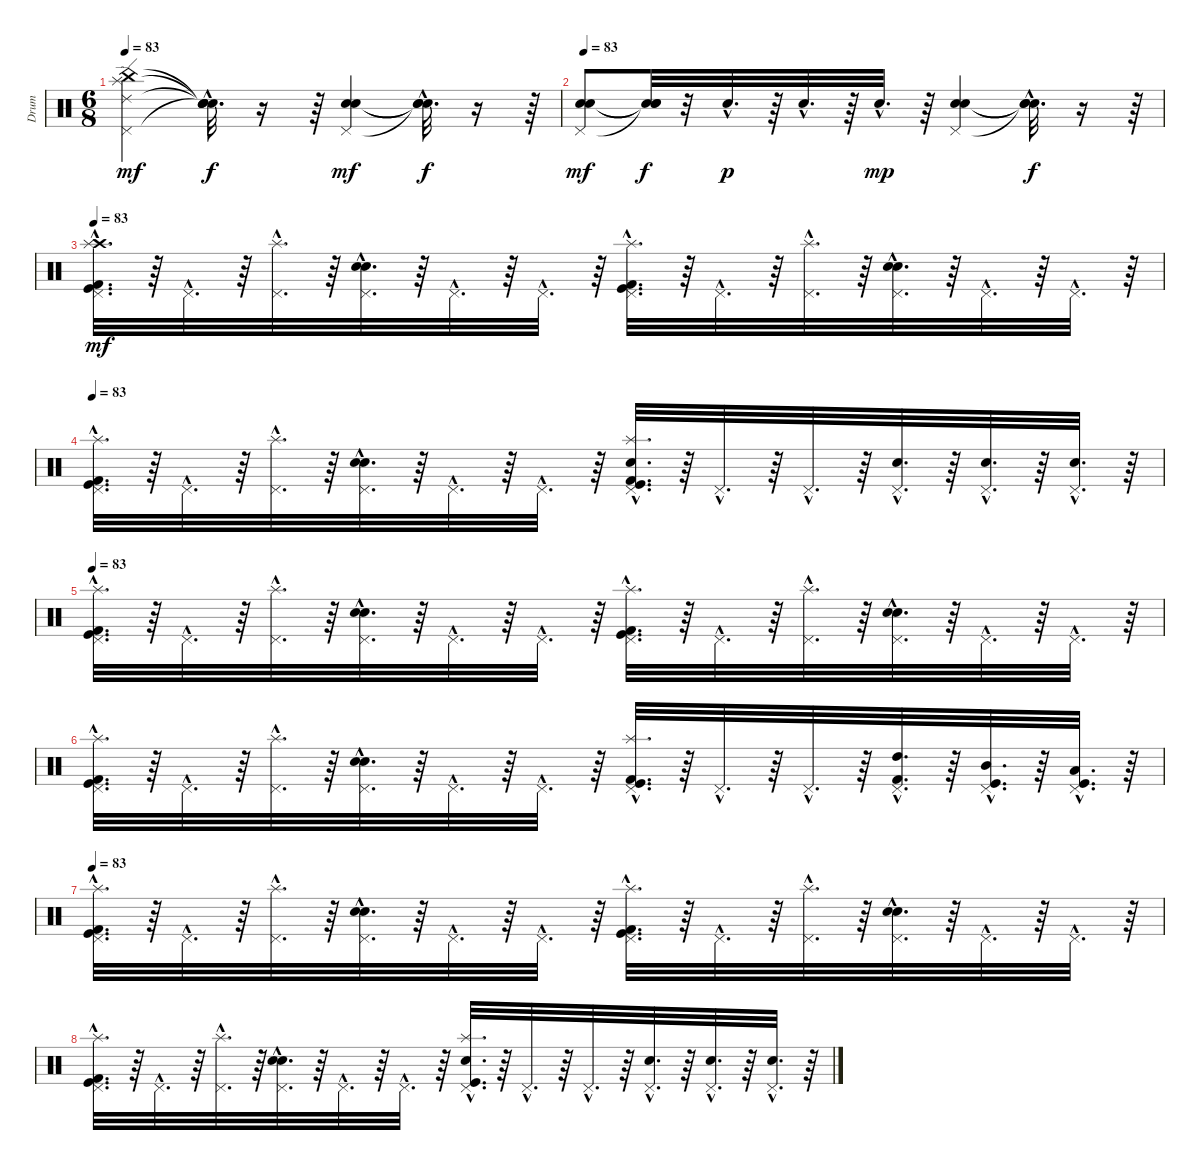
\track ("Drum" "Drum") {instrument percussion}
\staff {score}
\articulation defaults
\ts (6 8)
\tempo 83
\clef neutral
\ks c
("Pedal Hi-Hat (hit)" "Ride (edge) 2" "Splash (hit)" "China (hit)").4{dy mf} ("Snare (hit)"{hac t} "Snare (hit)"{hac t} "Snare (hit)"{hac t} "Snare (hit)"{hac t}).32{d dy f} r.16 r.64 ("Pedal Hi-Hat (hit)" "Electric Snare (hit)" "Snare (hit) 2").4{dy mf} ("Snare (hit)"{hac t} "Snare (hit)"{hac t} "Snare (hit)"{hac t}).32{d dy f} r.16 r.64 |
\tempo 83
("Pedal Hi-Hat (hit)" "Electric Snare (hit)" "Snare (hit) 2").8{dy mf} ("Snare (hit)"{t} "Snare (hit)"{t} "Snare (hit)"{t}).32{dy f} r.32 "Snare (hit) 2"{hac}.32{d dy p} r.64 "Snare (hit) 2"{hac}.32{d} r.64 "Snare (hit) 2"{hac}.32{d dy mp} r.64 ("Pedal Hi-Hat (hit)" "Electric Snare (hit)" "Snare (hit) 2").4 ("Snare (hit)"{hac t} "Snare (hit)"{hac t} "Snare (hit)"{hac t}).32{d dy f} r.16 r.64 |
\tempo 83
("Pedal Hi-Hat (hit)"{hac} "Kick (hit) 2"{hac} "Crash high (hit)"{hac} "Kick (hit)"{hac} "Splash (hit)"{hac}).32{d dy mf} r.64 "Pedal Hi-Hat (hit)"{hac}.32{d} r.64 ("Pedal Hi-Hat (hit)"{hac} "Splash (hit)"{hac}).32{d} r.64 ("Pedal Hi-Hat (hit)"{hac} "Snare (hit) 2"{hac} "Electric Snare (hit)"{hac}).32{d} r.64 "Pedal Hi-Hat (hit)"{hac}.32{d} r.64 "Pedal Hi-Hat (hit)"{hac}.32{d} r.64 ("Kick (hit) 2"{hac} "Kick (hit)"{hac} "Splash (hit)"{hac} "Pedal Hi-Hat (hit)"{hac}).32{d} r.64 "Pedal Hi-Hat (hit)"{hac}.32{d} r.64 ("Splash (hit)"{hac} "Pedal Hi-Hat (hit)"{hac}).32{d} r.64 ("Pedal Hi-Hat (hit)"{hac} "Snare (hit) 2"{hac} "Electric Snare (hit)"{hac}).32{d} r.64 "Pedal Hi-Hat (hit)"{hac}.32{d} r.64 "Pedal Hi-Hat (hit)"{hac}.32{d} r.64 |
\tempo 83
("Kick (hit) 2"{hac} "Pedal Hi-Hat (hit)"{hac} "Kick (hit)"{hac} "Splash (hit)"{hac}).32{d} r.64 "Pedal Hi-Hat (hit)"{hac}.32{d} r.64 ("Pedal Hi-Hat (hit)"{hac} "Splash (hit)"{hac}).32{d} r.64 ("Snare (hit) 2"{hac} "Electric Snare (hit)"{hac} "Pedal Hi-Hat (hit)"{hac}).32{d} r.64 "Pedal Hi-Hat (hit)"{hac}.32{d} r.64 "Pedal Hi-Hat (hit)"{hac}.32{d} r.64 ("Kick (hit) 2"{hac} "Pedal Hi-Hat (hit)"{hac} "Splash (hit)"{hac} "Kick (hit)"{hac} "Electric Snare (hit)"{hac}).32{d} r.64 "Pedal Hi-Hat (hit)"{hac}.32{d} r.64 "Pedal Hi-Hat (hit)"{hac}.32{d} r.64 ("Snare (hit) 2"{hac} "Pedal Hi-Hat (hit)"{hac}).32{d} r.64 ("Pedal Hi-Hat (hit)"{hac} "Snare (hit) 2"{hac}).32{d} r.64 ("Snare (hit) 2"{hac} "Pedal Hi-Hat (hit)"{hac}).32{d} r.64 |
\tempo 83
("Kick (hit) 2"{hac} "Splash (hit)"{hac} "Pedal Hi-Hat (hit)"{hac} "Kick (hit)"{hac}).32{d} r.64 "Pedal Hi-Hat (hit)"{hac}.32{d} r.64 ("Splash (hit)"{hac} "Pedal Hi-Hat (hit)"{hac}).32{d} r.64 ("Snare (hit) 2"{hac} "Electric Snare (hit)"{hac} "Pedal Hi-Hat (hit)"{hac}).32{d} r.64 "Pedal Hi-Hat (hit)"{hac}.32{d} r.64 "Pedal Hi-Hat (hit)"{hac}.32{d} r.64 ("Kick (hit) 2"{hac} "Kick (hit)"{hac} "Pedal Hi-Hat (hit)"{hac} "Splash (hit)"{hac}).32{d} r.64 "Pedal Hi-Hat (hit)"{hac}.32{d} r.64 ("Pedal Hi-Hat (hit)"{hac} "Splash (hit)"{hac}).32{d} r.64 ("Electric Snare (hit)"{hac} "Snare (hit) 2"{hac} "Pedal Hi-Hat (hit)"{hac}).32{d} r.64 "Pedal Hi-Hat (hit)"{hac}.32{d} r.64 "Pedal Hi-Hat (hit)"{hac}.32{d} r.64 |
("Pedal Hi-Hat (hit)"{hac} "Kick (hit)"{hac} "Splash (hit)"{hac} "Kick (hit) 2"{hac}).32{d} r.64 "Pedal Hi-Hat (hit)"{hac}.32{d} r.64 ("Pedal Hi-Hat (hit)"{hac} "Splash (hit)"{hac}).32{d} r.64 ("Pedal Hi-Hat (hit)"{hac} "Electric Snare (hit)"{hac} "Snare (hit) 2"{hac}).32{d} r.64 "Pedal Hi-Hat (hit)"{hac}.32{d} r.64 "Pedal Hi-Hat (hit)"{hac}.32{d} r.64 ("Pedal Hi-Hat (hit)"{hac} "Kick (hit)"{hac} "Splash (hit)"{hac} "Kick (hit) 2"{hac}).32{d} r.64 "Pedal Hi-Hat (hit)"{hac}.32{d} r.64 "Pedal Hi-Hat (hit)"{hac}.32{d} r.64 ("High Tom (hit)"{hac} "Pedal Hi-Hat (hit)"{hac} "Kick (hit) 2"{hac}).32{d} r.64 ("Pedal Hi-Hat (hit)"{hac} "Mid Tom (hit)"{hac} "Kick (hit)"{hac}).32{d} r.64 ("Pedal Hi-Hat (hit)"{hac} "Low Tom (hit)"{hac} "Kick (hit)"{hac}).32{d} r.64 |
\tempo 83
("Kick (hit) 2"{hac} "Pedal Hi-Hat (hit)"{hac} "Kick (hit)"{hac} "Splash (hit)"{hac}).32{d} r.64 "Pedal Hi-Hat (hit)"{hac}.32{d} r.64 ("Pedal Hi-Hat (hit)"{hac} "Splash (hit)"{hac}).32{d} r.64 ("Pedal Hi-Hat (hit)"{hac} "Snare (hit) 2"{hac} "Electric Snare (hit)"{hac}).32{d} r.64 "Pedal Hi-Hat (hit)"{hac}.32{d} r.64 "Pedal Hi-Hat (hit)"{hac}.32{d} r.64 ("Kick (hit) 2"{hac} "Pedal Hi-Hat (hit)"{hac} "Kick (hit)"{hac} "Splash (hit)"{hac}).32{d} r.64 "Pedal Hi-Hat (hit)"{hac}.32{d} r.64 ("Pedal Hi-Hat (hit)"{hac} "Splash (hit)"{hac}).32{d} r.64 ("Pedal Hi-Hat (hit)"{hac} "Electric Snare (hit)"{hac} "Snare (hit) 2"{hac}).32{d} r.64 "Pedal Hi-Hat (hit)"{hac}.32{d} r.64 "Pedal Hi-Hat (hit)"{hac}.32{d} r.64 |
("Kick (hit) 2"{hac} "Pedal Hi-Hat (hit)"{hac} "Kick (hit)"{hac} "Splash (hit)"{hac}).32{d} r.64 "Pedal Hi-Hat (hit)"{hac}.32{d} r.64 ("Pedal Hi-Hat (hit)"{hac} "Splash (hit)"{hac}).32{d} r.64 ("Pedal Hi-Hat (hit)"{hac} "Electric Snare (hit)"{hac} "Snare (hit) 2"{hac}).32{d} r.64 "Pedal Hi-Hat (hit)"{hac}.32{d} r.64 "Pedal Hi-Hat (hit)"{hac}.32{d} r.64 ("Splash (hit)"{hac} "Electric Snare (hit)"{hac} "Pedal Hi-Hat (hit)"{hac} "Kick (hit)"{hac}).32{d} r.64 "Pedal Hi-Hat (hit)"{hac}.32{d} r.64 "Pedal Hi-Hat (hit)"{hac}.32{d} r.64 ("Pedal Hi-Hat (hit)"{hac} "Snare (hit) 2"{hac}).32{d} r.64 ("Pedal Hi-Hat (hit)"{hac} "Snare (hit) 2"{hac}).32{d} r.64 ("Pedal Hi-Hat (hit)"{hac} "Snare (hit) 2"{hac}).32{d} r.64
